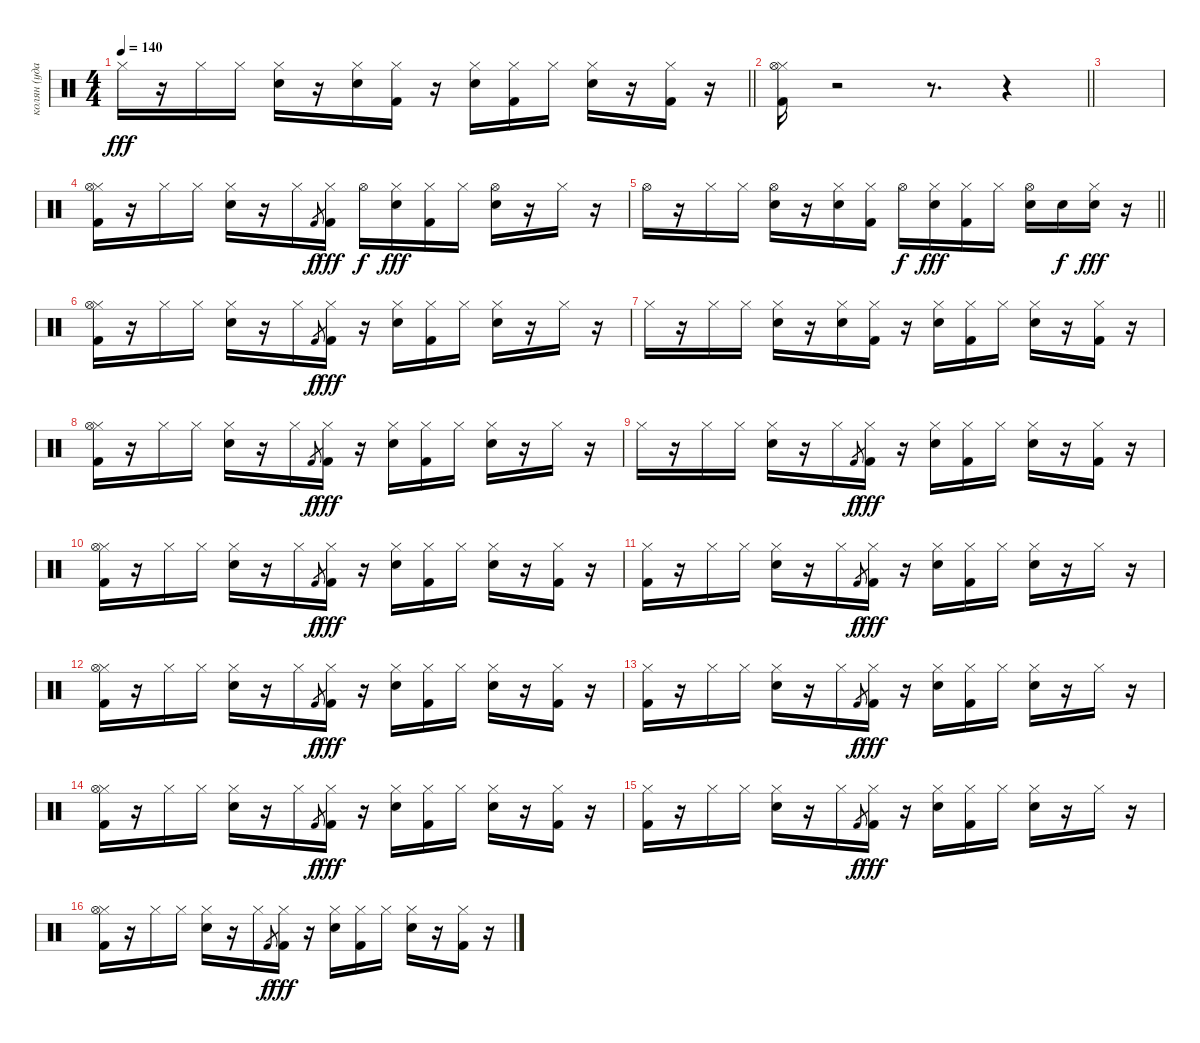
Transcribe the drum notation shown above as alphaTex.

\track ("колян (ударные)" "колян (уда") {instrument percussion}
\staff {score}
\articulation defaults
\ts (4 4)
\tempo 140
\clef neutral
\barLineRight lightlight
\ks c "Hi-Hat (closed)".16{dy fff}
r.16 "Hi-Hat (closed)".16 "Hi-Hat (closed)".16 ("Hi-Hat (closed)" "Electric Snare (hit)").16 r.16 ("Hi-Hat (closed)" "Electric Snare (hit)").16 ("Hi-Hat (closed)" "Kick (hit) 2").16 r.16 ("Hi-Hat (closed)" "Electric Snare (hit)").16 ("Hi-Hat (closed)" "Kick (hit) 2").16 "Hi-Hat (closed)".16 ("Hi-Hat (closed)" "Electric Snare (hit)").16 r.16 ("Hi-Hat (closed)" "Kick (hit) 2").16 r.16 |
\barLineRight lightlight
("Hi-Hat (closed)" "Hi-Hat (open)" "Kick (hit) 2").16 r.2 r.8{d} r.4 |
|
("Hi-Hat (closed)" "Hi-Hat (open)" "Kick (hit) 2").16 r.16 "Hi-Hat (closed)".16 "Hi-Hat (closed)".16 ("Hi-Hat (closed)" "Electric Snare (hit)").16 r.16 "Hi-Hat (closed)".16 "Kick (hit) 2".8{gr dy f} ("Hi-Hat (closed)" "Kick (hit) 2").16{dy fff} "Hi-Hat (open)".16{dy f} ("Hi-Hat (closed)" "Electric Snare (hit)").16{dy fff} ("Hi-Hat (closed)" "Kick (hit) 2").16 "Hi-Hat (closed)".16 ("Hi-Hat (open)" "Electric Snare (hit)").16 r.16 "Hi-Hat (closed)".16 r.16 |
\barLineRight lightlight "Hi-Hat (open)".16
r.16 "Hi-Hat (closed)".16 "Hi-Hat (closed)".16 ("Hi-Hat (open)" "Electric Snare (hit)").16 r.16 ("Hi-Hat (closed)" "Electric Snare (hit)").16 ("Hi-Hat (closed)" "Kick (hit) 2").16 "Hi-Hat (open)".16{dy f} ("Hi-Hat (closed)" "Electric Snare (hit)").16{dy fff} ("Hi-Hat (closed)" "Kick (hit) 2").16 "Hi-Hat (closed)".16 ("Hi-Hat (open)" "Electric Snare (hit)").16 "Electric Snare (hit)".16{dy f} ("Hi-Hat (closed)" "Electric Snare (hit)").16{dy fff} r.16 |
("Hi-Hat (closed)" "Hi-Hat (open)" "Kick (hit) 2").16 r.16 "Hi-Hat (closed)".16 "Hi-Hat (closed)".16 ("Hi-Hat (closed)" "Electric Snare (hit)").16 r.16 "Hi-Hat (closed)".16 "Kick (hit) 2".8{gr dy f} ("Hi-Hat (closed)" "Kick (hit) 2").16{dy fff} r.16 ("Hi-Hat (closed)" "Electric Snare (hit)").16 ("Hi-Hat (closed)" "Kick (hit) 2").16 "Hi-Hat (closed)".16 ("Hi-Hat (closed)" "Electric Snare (hit)").16 r.16 "Hi-Hat (closed)".16 r.16 |
"Hi-Hat (closed)".16 r.16 "Hi-Hat (closed)".16 "Hi-Hat (closed)".16 ("Hi-Hat (closed)" "Electric Snare (hit)").16 r.16 ("Hi-Hat (closed)" "Electric Snare (hit)").16 ("Hi-Hat (closed)" "Kick (hit) 2").16 r.16 ("Hi-Hat (closed)" "Electric Snare (hit)").16 ("Hi-Hat (closed)" "Kick (hit) 2").16 "Hi-Hat (closed)".16 ("Hi-Hat (closed)" "Electric Snare (hit)").16 r.16 ("Hi-Hat (closed)" "Kick (hit) 2").16 r.16 |
("Hi-Hat (closed)" "Hi-Hat (open)" "Kick (hit) 2").16 r.16 "Hi-Hat (closed)".16 "Hi-Hat (closed)".16 ("Hi-Hat (closed)" "Electric Snare (hit)").16 r.16 "Hi-Hat (closed)".16 "Kick (hit) 2".8{gr dy f} ("Hi-Hat (closed)" "Kick (hit) 2").16{dy fff} r.16 ("Hi-Hat (closed)" "Electric Snare (hit)").16 ("Hi-Hat (closed)" "Kick (hit) 2").16 "Hi-Hat (closed)".16 ("Hi-Hat (closed)" "Electric Snare (hit)").16 r.16 "Hi-Hat (closed)".16 r.16 |
"Hi-Hat (closed)".16 r.16 "Hi-Hat (closed)".16 "Hi-Hat (closed)".16 ("Hi-Hat (closed)" "Electric Snare (hit)").16 r.16 "Hi-Hat (closed)".16 "Kick (hit) 2".8{gr dy f} ("Hi-Hat (closed)" "Kick (hit) 2").16{dy fff} r.16 ("Hi-Hat (closed)" "Electric Snare (hit)").16 ("Hi-Hat (closed)" "Kick (hit) 2").16 "Hi-Hat (closed)".16 ("Hi-Hat (closed)" "Electric Snare (hit)").16 r.16 ("Hi-Hat (closed)" "Kick (hit) 2").16 r.16 |
("Hi-Hat (closed)" "Hi-Hat (open)" "Kick (hit) 2").16 r.16 "Hi-Hat (closed)".16 "Hi-Hat (closed)".16 ("Hi-Hat (closed)" "Electric Snare (hit)").16 r.16 "Hi-Hat (closed)".16 "Kick (hit) 2".8{gr dy f} ("Hi-Hat (closed)" "Kick (hit) 2").16{dy fff} r.16 ("Hi-Hat (closed)" "Electric Snare (hit)").16 ("Hi-Hat (closed)" "Kick (hit) 2").16 "Hi-Hat (closed)".16 ("Hi-Hat (closed)" "Electric Snare (hit)").16 r.16 ("Hi-Hat (closed)" "Kick (hit) 2").16 r.16 |
("Hi-Hat (closed)" "Kick (hit) 2").16 r.16 "Hi-Hat (closed)".16 "Hi-Hat (closed)".16 ("Hi-Hat (closed)" "Electric Snare (hit)").16 r.16 "Hi-Hat (closed)".16 "Kick (hit) 2".8{gr dy f} ("Hi-Hat (closed)" "Kick (hit) 2").16{dy fff} r.16 ("Hi-Hat (closed)" "Electric Snare (hit)").16 ("Hi-Hat (closed)" "Kick (hit) 2").16 "Hi-Hat (closed)".16 ("Hi-Hat (closed)" "Electric Snare (hit)").16 r.16 "Hi-Hat (closed)".16 r.16 |
("Hi-Hat (closed)" "Hi-Hat (open)" "Kick (hit) 2").16 r.16 "Hi-Hat (closed)".16 "Hi-Hat (closed)".16 ("Hi-Hat (closed)" "Electric Snare (hit)").16 r.16 "Hi-Hat (closed)".16 "Kick (hit) 2".8{gr dy f} ("Hi-Hat (closed)" "Kick (hit) 2").16{dy fff} r.16 ("Hi-Hat (closed)" "Electric Snare (hit)").16 ("Hi-Hat (closed)" "Kick (hit) 2").16 "Hi-Hat (closed)".16 ("Hi-Hat (closed)" "Electric Snare (hit)").16 r.16 ("Hi-Hat (closed)" "Kick (hit) 2").16 r.16 |
("Hi-Hat (closed)" "Kick (hit) 2").16 r.16 "Hi-Hat (closed)".16 "Hi-Hat (closed)".16 ("Hi-Hat (closed)" "Electric Snare (hit)").16 r.16 "Hi-Hat (closed)".16 "Kick (hit) 2".8{gr dy f} ("Hi-Hat (closed)" "Kick (hit) 2").16{dy fff} r.16 ("Hi-Hat (closed)" "Electric Snare (hit)").16 ("Hi-Hat (closed)" "Kick (hit) 2").16 "Hi-Hat (closed)".16 ("Hi-Hat (closed)" "Electric Snare (hit)").16 r.16 "Hi-Hat (closed)".16 r.16 |
("Hi-Hat (closed)" "Hi-Hat (open)" "Kick (hit) 2").16 r.16 "Hi-Hat (closed)".16 "Hi-Hat (closed)".16 ("Hi-Hat (closed)" "Electric Snare (hit)").16 r.16 "Hi-Hat (closed)".16 "Kick (hit) 2".8{gr dy f} ("Hi-Hat (closed)" "Kick (hit) 2").16{dy fff} r.16 ("Hi-Hat (closed)" "Electric Snare (hit)").16 ("Hi-Hat (closed)" "Kick (hit) 2").16 "Hi-Hat (closed)".16 ("Hi-Hat (closed)" "Electric Snare (hit)").16 r.16 ("Hi-Hat (closed)" "Kick (hit) 2").16 r.16 |
("Hi-Hat (closed)" "Kick (hit) 2").16 r.16 "Hi-Hat (closed)".16 "Hi-Hat (closed)".16 ("Hi-Hat (closed)" "Electric Snare (hit)").16 r.16 "Hi-Hat (closed)".16 "Kick (hit) 2".8{gr dy f} ("Hi-Hat (closed)" "Kick (hit) 2").16{dy fff} r.16 ("Hi-Hat (closed)" "Electric Snare (hit)").16 ("Hi-Hat (closed)" "Kick (hit) 2").16 "Hi-Hat (closed)".16 ("Hi-Hat (closed)" "Electric Snare (hit)").16 r.16 "Hi-Hat (closed)".16 r.16 |
("Hi-Hat (closed)" "Hi-Hat (open)" "Kick (hit) 2").16 r.16 "Hi-Hat (closed)".16 "Hi-Hat (closed)".16 ("Hi-Hat (closed)" "Electric Snare (hit)").16 r.16 "Hi-Hat (closed)".16 "Kick (hit) 2".8{gr dy f} ("Hi-Hat (closed)" "Kick (hit) 2").16{dy fff} r.16 ("Hi-Hat (closed)" "Electric Snare (hit)").16 ("Hi-Hat (closed)" "Kick (hit) 2").16 "Hi-Hat (closed)".16 ("Hi-Hat (closed)" "Electric Snare (hit)").16 r.16 ("Hi-Hat (closed)" "Kick (hit) 2").16 r.16
